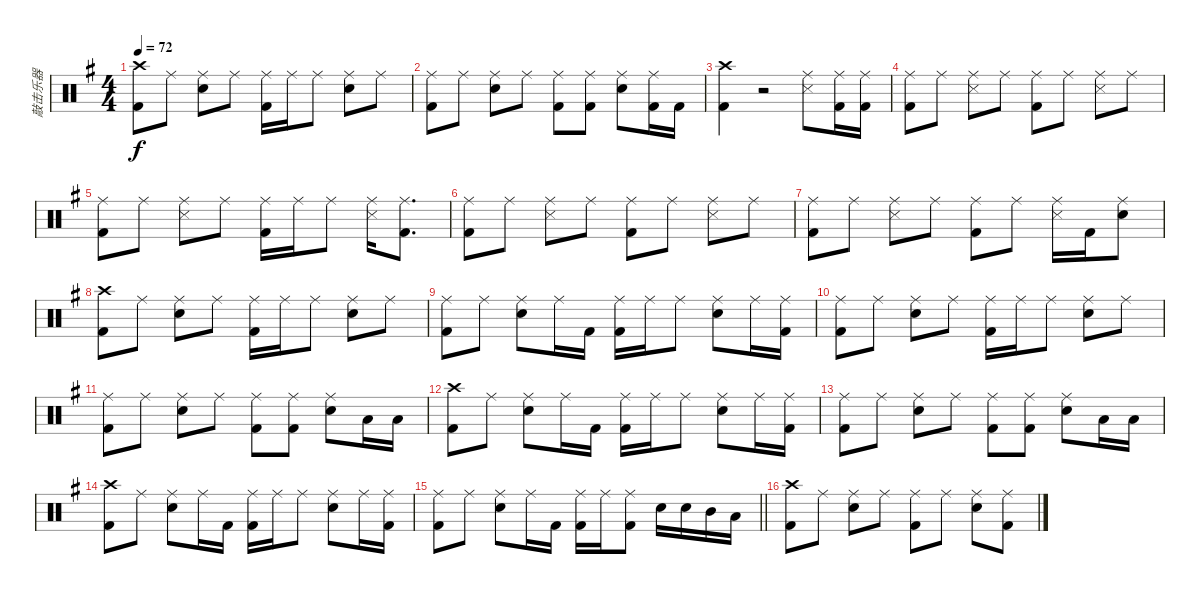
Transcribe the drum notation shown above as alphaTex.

\track ("敲击乐器" "敲击乐器") {instrument percussion}
\staff {score}
\articulation defaults
\ts (4 4)
\tempo 72
\clef neutral
\ks g
("Crash high (hit)" "Kick (hit) 2").8{dy f} "Ride (middle)".8 ("Ride (middle)" "Snare (hit) 2").8 "Ride (middle)".8 ("Ride (middle)" "Kick (hit) 2").16 "Ride (middle)".16 "Ride (middle)".8 ("Ride (middle)" "Snare (hit) 2").8 "Ride (middle)".8 |
("Ride (middle)" "Kick (hit) 2").8 "Ride (middle)".8 ("Ride (middle)" "Snare (hit) 2").8 "Ride (middle)".8 ("Ride (middle)" "Kick (hit) 2").8 ("Ride (middle)" "Kick (hit) 2").8 ("Ride (middle)" "Snare (hit) 2").8 ("Ride (middle)" "Kick (hit) 2").16 "Kick (hit) 2".16 |
("Crash high (hit)" "Kick (hit) 2").4 r.2 ("Ride (middle)" "Snare (side stick) 3").8 ("Ride (middle)" "Kick (hit) 2").16 ("Ride (middle)" "Kick (hit) 2").16 |
("Ride (middle)" "Kick (hit) 2").8 "Ride (middle)".8 ("Ride (middle)" "Snare (side stick) 3").8 "Ride (middle)".8 ("Ride (middle)" "Kick (hit) 2").8 "Ride (middle)".8 ("Ride (middle)" "Snare (side stick) 3").8 "Ride (middle)".8 |
("Ride (middle)" "Kick (hit) 2").8 "Ride (middle)".8 ("Ride (middle)" "Snare (side stick) 3").8 "Ride (middle)".8 ("Ride (middle)" "Kick (hit) 2").16 "Ride (middle)".16 "Ride (middle)".8 ("Ride (middle)" "Snare (side stick) 3").16 ("Ride (middle)" "Kick (hit) 2").8{d} |
("Ride (middle)" "Kick (hit) 2").8 "Ride (middle)".8 ("Ride (middle)" "Snare (side stick) 3").8 "Ride (middle)".8 ("Ride (middle)" "Kick (hit) 2").8 "Ride (middle)".8 ("Ride (middle)" "Snare (side stick) 3").8 "Ride (middle)".8 |
("Ride (middle)" "Kick (hit) 2").8 "Ride (middle)".8 ("Ride (middle)" "Snare (side stick) 3").8 "Ride (middle)".8 ("Ride (middle)" "Kick (hit) 2").8 "Ride (middle)".8 ("Ride (middle)" "Snare (side stick) 3").16 "Kick (hit) 2".16 ("Ride (middle)" "Snare (hit) 2").8 |
("Crash high (hit)" "Kick (hit) 2").8 "Ride (middle)".8 ("Ride (middle)" "Snare (hit) 2").8 "Ride (middle)".8 ("Ride (middle)" "Kick (hit) 2").16 "Ride (middle)".16 "Ride (middle)".8 ("Ride (middle)" "Snare (hit) 2").8 "Ride (middle)".8 |
("Ride (middle)" "Kick (hit) 2").8 "Ride (middle)".8 ("Ride (middle)" "Snare (hit) 2").8 "Ride (middle)".16 "Kick (hit) 2".16 ("Ride (middle)" "Kick (hit) 2").16 "Ride (middle)".16 "Ride (middle)".8 ("Ride (middle)" "Snare (hit) 2").8 "Ride (middle)".16 ("Ride (middle)" "Kick (hit) 2").16 |
("Ride (middle)" "Kick (hit) 2").8 "Ride (middle)".8 ("Ride (middle)" "Snare (hit) 2").8 "Ride (middle)".8 ("Ride (middle)" "Kick (hit) 2").16 "Ride (middle)".16 "Ride (middle)".8 ("Ride (middle)" "Snare (hit) 2").8 "Ride (middle)".8 |
("Ride (middle)" "Kick (hit) 2").8 "Ride (middle)".8 ("Ride (middle)" "Snare (hit) 2").8 "Ride (middle)".8 ("Ride (middle)" "Kick (hit) 2").8 ("Ride (middle)" "Kick (hit) 2").8 ("Ride (middle)" "Snare (hit) 2").8 "Low Tom (hit)".16 "Low Tom (hit)".16 |
("Crash high (hit)" "Kick (hit) 2").8 "Ride (middle)".8 ("Ride (middle)" "Snare (hit) 2").8 "Ride (middle)".16 "Kick (hit) 2".16 ("Ride (middle)" "Kick (hit) 2").16 "Ride (middle)".16 "Ride (middle)".8 ("Ride (middle)" "Snare (hit) 2").8 "Ride (middle)".16 ("Ride (middle)" "Kick (hit) 2").16 |
("Ride (middle)" "Kick (hit) 2").8 "Ride (middle)".8 ("Ride (middle)" "Snare (hit) 2").8 "Ride (middle)".8 ("Ride (middle)" "Kick (hit) 2").8 ("Ride (middle)" "Kick (hit) 2").8 ("Ride (middle)" "Snare (hit) 2").8 "Low Tom (hit)".16 "Low Tom (hit)".16 |
("Crash high (hit)" "Kick (hit) 2").8 "Ride (middle)".8 ("Ride (middle)" "Snare (hit) 2").8 "Ride (middle)".16 "Kick (hit) 2".16 ("Ride (middle)" "Kick (hit) 2").16 "Ride (middle)".16 "Ride (middle)".8 ("Ride (middle)" "Snare (hit) 2").8 "Ride (middle)".16 ("Ride (middle)" "Kick (hit) 2").16 |
\barLineRight lightlight
("Ride (middle)" "Kick (hit) 2").8 "Ride (middle)".8 ("Ride (middle)" "Snare (hit) 2").8 "Ride (middle)".16 "Kick (hit) 2".16 ("Ride (middle)" "Kick (hit) 2").16 "Ride (middle)".16 ("Ride (middle)" "Kick (hit) 2").8 "Snare (hit) 2".16 "Snare (hit) 2".16 "Mid Tom (hit)".16 "Low Tom (hit)".16 |
("Crash high (hit)" "Kick (hit) 2").8 "Ride (middle)".8 ("Ride (middle)" "Snare (hit) 2").8 "Ride (middle)".8 ("Ride (middle)" "Kick (hit) 2").8 "Ride (middle)".8 ("Ride (middle)" "Snare (hit) 2").8 ("Ride (middle)" "Kick (hit) 2").8
